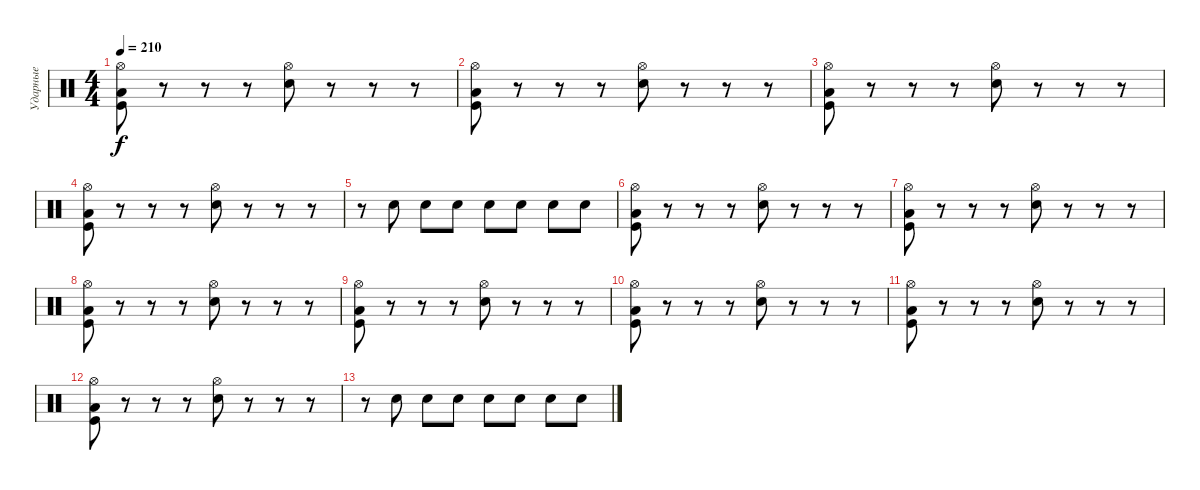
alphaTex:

\track ("Ударные" "Ударные") {instrument percussion}
\staff {score}
\articulation defaults
\ts (4 4)
\tempo 210
\clef neutral
\ks c
("Hi-Hat (open)" "Low Tom (hit)" "Kick (hit)").8{dy f} r.8 r.8 r.8 ("Hi-Hat (open)" "Electric Snare (hit)").8 r.8 r.8 r.8 |
("Hi-Hat (open)" "Low Tom (hit)" "Kick (hit)").8 r.8 r.8 r.8 ("Hi-Hat (open)" "Electric Snare (hit)").8 r.8 r.8 r.8 |
("Hi-Hat (open)" "Low Tom (hit)" "Kick (hit)").8 r.8 r.8 r.8 ("Hi-Hat (open)" "Electric Snare (hit)").8 r.8 r.8 r.8 |
("Hi-Hat (open)" "Low Tom (hit)" "Kick (hit)").8 r.8 r.8 r.8 ("Hi-Hat (open)" "Electric Snare (hit)").8 r.8 r.8 r.8 |
r.8 "Electric Snare (hit)".8 "Electric Snare (hit)".8 "Electric Snare (hit)".8 "Electric Snare (hit)".8 "Electric Snare (hit)".8 "Electric Snare (hit)".8 "Electric Snare (hit)".8 |
("Hi-Hat (open)" "Low Tom (hit)" "Kick (hit)").8 r.8 r.8 r.8 ("Hi-Hat (open)" "Electric Snare (hit)").8 r.8 r.8 r.8 |
("Hi-Hat (open)" "Low Tom (hit)" "Kick (hit)").8 r.8 r.8 r.8 ("Hi-Hat (open)" "Electric Snare (hit)").8 r.8 r.8 r.8 |
("Hi-Hat (open)" "Low Tom (hit)" "Kick (hit)").8 r.8 r.8 r.8 ("Hi-Hat (open)" "Electric Snare (hit)").8 r.8 r.8 r.8 |
("Hi-Hat (open)" "Low Tom (hit)" "Kick (hit)").8 r.8 r.8 r.8 ("Hi-Hat (open)" "Electric Snare (hit)").8 r.8 r.8 r.8 |
("Hi-Hat (open)" "Low Tom (hit)" "Kick (hit)").8 r.8 r.8 r.8 ("Hi-Hat (open)" "Electric Snare (hit)").8 r.8 r.8 r.8 |
("Hi-Hat (open)" "Low Tom (hit)" "Kick (hit)").8 r.8 r.8 r.8 ("Hi-Hat (open)" "Electric Snare (hit)").8 r.8 r.8 r.8 |
("Hi-Hat (open)" "Low Tom (hit)" "Kick (hit)").8 r.8 r.8 r.8 ("Hi-Hat (open)" "Electric Snare (hit)").8 r.8 r.8 r.8 |
r.8 "Electric Snare (hit)".8 "Electric Snare (hit)".8 "Electric Snare (hit)".8 "Electric Snare (hit)".8 "Electric Snare (hit)".8 "Electric Snare (hit)".8 "Electric Snare (hit)".8
